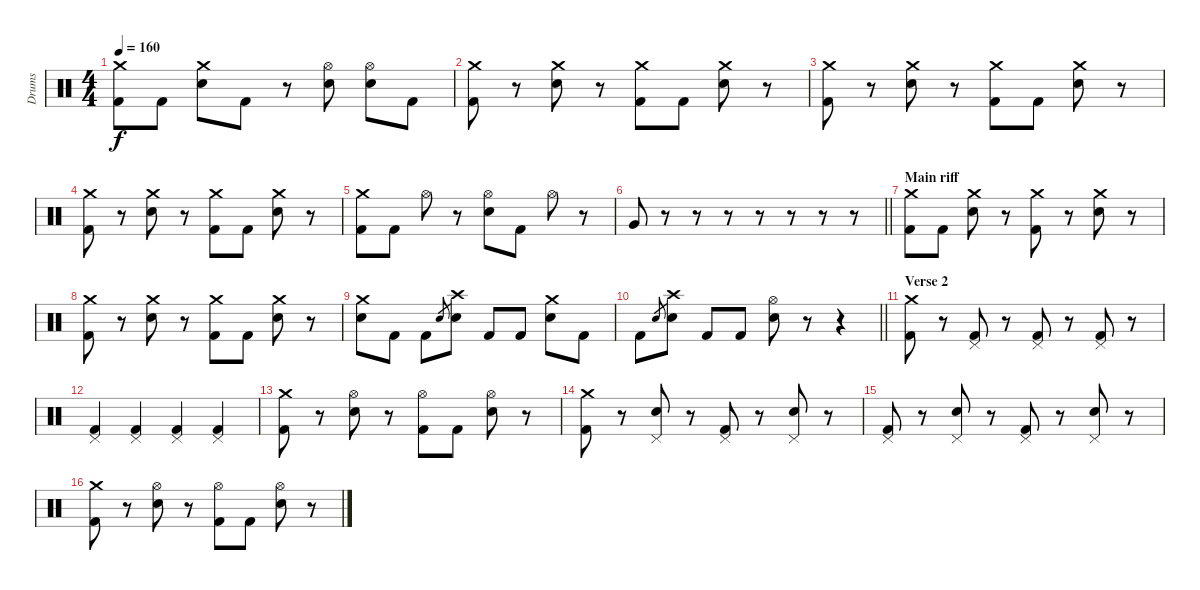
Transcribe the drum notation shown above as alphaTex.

\track ("Drums" "Drums") {instrument percussion}
\staff {score}
\articulation defaults
\ts (4 4)
\tempo 160
\clef neutral
\ks c
("Crash medium (hit)" "Kick (hit) 2").8{dy f} "Kick (hit) 2".8 ("Crash medium (hit)" "Electric Snare (hit)").8 "Kick (hit) 2".8 r.8 ("Hi-Hat (open)" "Electric Snare (hit)").8 ("Hi-Hat (open)" "Electric Snare (hit)").8 "Kick (hit) 2".8 |
("Crash medium (hit)" "Kick (hit) 2").8 r.8 ("Crash medium (hit)" "Electric Snare (hit)").8 r.8 ("Crash medium (hit)" "Kick (hit) 2").8 "Kick (hit) 2".8 ("Crash medium (hit)" "Electric Snare (hit)").8 r.8 |
("Crash medium (hit)" "Kick (hit) 2").8 r.8 ("Crash medium (hit)" "Electric Snare (hit)").8 r.8 ("Crash medium (hit)" "Kick (hit) 2").8 "Kick (hit) 2".8 ("Crash medium (hit)" "Electric Snare (hit)").8 r.8 |
("Crash medium (hit)" "Kick (hit) 2").8 r.8 ("Crash medium (hit)" "Electric Snare (hit)").8 r.8 ("Crash medium (hit)" "Kick (hit) 2").8 "Kick (hit) 2".8 ("Crash medium (hit)" "Electric Snare (hit)").8 r.8 |
("Crash medium (hit)" "Kick (hit) 2").8 "Kick (hit) 2".8 "Hi-Hat (open)".8 r.8 ("Hi-Hat (open)" "Electric Snare (hit)").8 "Kick (hit) 2".8 "Hi-Hat (open)".8 r.8 |
\barLineRight lightlight "Very Low Tom (hit)".8
r.8 r.8 r.8 r.8 r.8 r.8 r.8 |
\section ("" "Main riff")
("Crash medium (hit)" "Kick (hit) 2").8 "Kick (hit) 2".8 ("Crash medium (hit)" "Electric Snare (hit)").8 r.8 ("Crash medium (hit)" "Kick (hit) 2").8 r.8 ("Crash medium (hit)" "Electric Snare (hit)").8 r.8 |
("Crash medium (hit)" "Kick (hit) 2").8 r.8 ("Crash medium (hit)" "Electric Snare (hit)").8 r.8 ("Crash medium (hit)" "Kick (hit) 2").8 "Kick (hit) 2".8 ("Crash medium (hit)" "Electric Snare (hit)").8 r.8 |
("Crash medium (hit)" "Electric Snare (hit)").8 "Kick (hit) 2".8 "Kick (hit) 2".8 "Electric Snare (hit)".8{gr} ("Crash high (hit)" "Electric Snare (hit)").8 "Kick (hit) 2".8 "Kick (hit) 2".8 ("Crash medium (hit)" "Electric Snare (hit)").8 "Kick (hit) 2".8 |
\barLineRight lightlight "Kick (hit) 2".8 "Electric Snare (hit)".8{gr}
("Crash high (hit)" "Electric Snare (hit)").8 "Kick (hit) 2".8 "Kick (hit) 2".8 ("Hi-Hat (open)" "Electric Snare (hit)").8 r.8 r.4 |
\section ("" "Verse 2")
("Crash medium (hit)" "Kick (hit) 2").8 r.8 ("Pedal Hi-Hat (hit)" "Kick (hit) 2").8 r.8 ("Pedal Hi-Hat (hit)" "Kick (hit) 2").8 r.8 ("Pedal Hi-Hat (hit)" "Kick (hit) 2").8 r.8 |
("Pedal Hi-Hat (hit)" "Kick (hit) 2").4 ("Pedal Hi-Hat (hit)" "Kick (hit) 2").4 ("Pedal Hi-Hat (hit)" "Kick (hit) 2").4 ("Pedal Hi-Hat (hit)" "Kick (hit) 2").4 |
("Crash medium (hit)" "Kick (hit) 2").8 r.8 ("Hi-Hat (open)" "Electric Snare (hit)").8 r.8 ("Hi-Hat (open)" "Kick (hit) 2").8 "Kick (hit) 2".8 ("Hi-Hat (open)" "Electric Snare (hit)").8 r.8 |
("Crash medium (hit)" "Kick (hit) 2").8 r.8 ("Pedal Hi-Hat (hit)" "Electric Snare (hit)").8 r.8 ("Pedal Hi-Hat (hit)" "Kick (hit) 2").8 r.8 ("Pedal Hi-Hat (hit)" "Electric Snare (hit)").8 r.8 |
("Pedal Hi-Hat (hit)" "Kick (hit) 2").8 r.8 ("Pedal Hi-Hat (hit)" "Electric Snare (hit)").8 r.8 ("Pedal Hi-Hat (hit)" "Kick (hit) 2").8 r.8 ("Pedal Hi-Hat (hit)" "Electric Snare (hit)").8 r.8 |
("Crash medium (hit)" "Kick (hit) 2").8 r.8 ("Hi-Hat (open)" "Electric Snare (hit)").8 r.8 ("Hi-Hat (open)" "Kick (hit) 2").8 "Kick (hit) 2".8 ("Hi-Hat (open)" "Electric Snare (hit)").8 r.8
